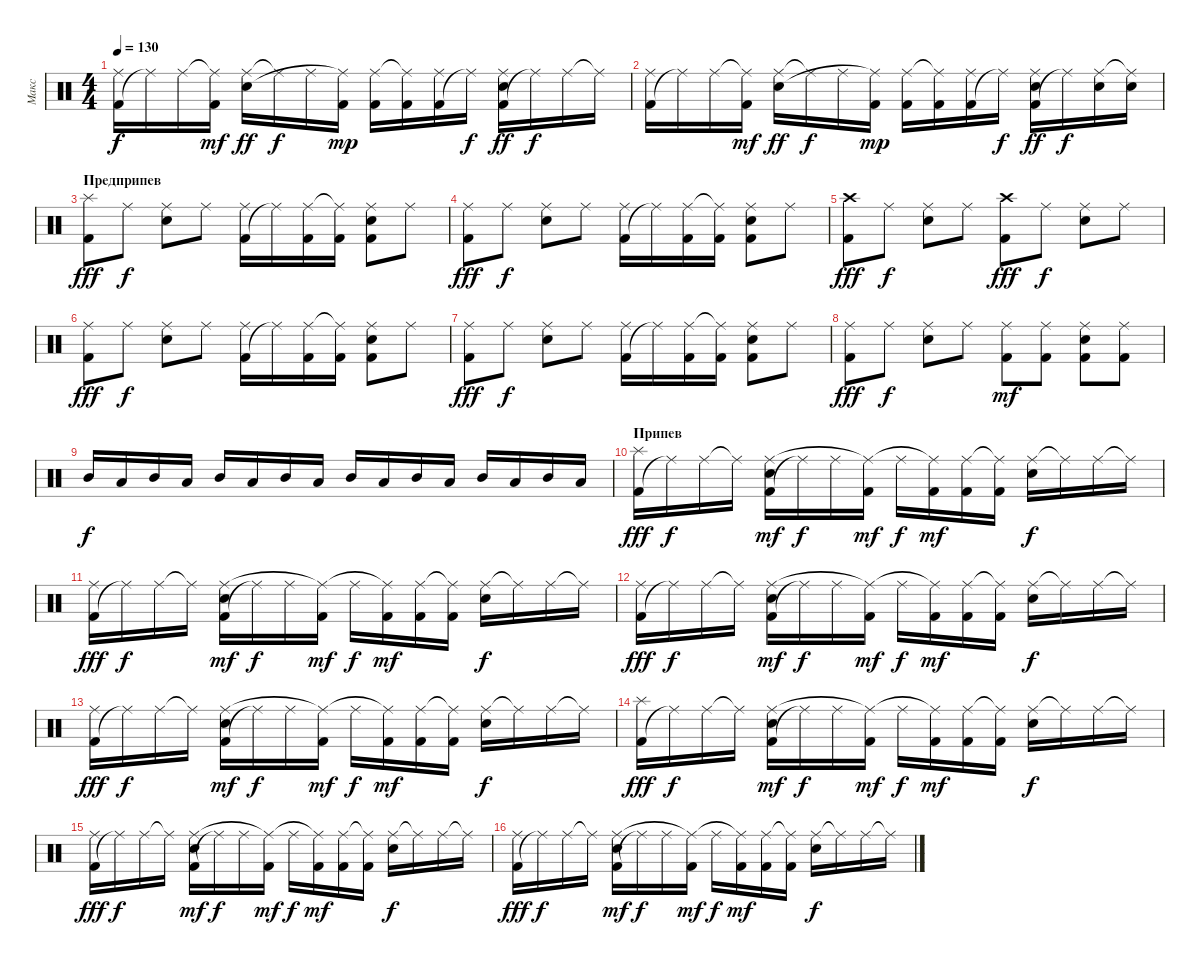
\track ("Макс" "Макс") {instrument percussion}
\staff {score}
\articulation defaults
\ts (4 4)
\tempo 130
\clef neutral
\ks c
("Kick (hit) 2" "Ride (middle)").16{dy f} "Ride (middle)"{t}.16 "Ride (middle)".16 ("Ride (middle)"{t} "Kick (hit) 2").16{dy mf} ("Ride (middle)" "Electric Snare (hit)").16{dy ff} "Ride (middle)"{t}.16{dy f} "Ride (middle)".16 ("Kick (hit) 2" "Ride (middle)"{t}).16{dy mp} ("Kick (hit) 2" "Ride (middle)").16 ("Kick (hit) 2" "Ride (middle)"{t}).16 ("Kick (hit) 2" "Ride (middle)").16 "Ride (middle)"{t}.16{dy f} ("Kick (hit) 2" "Ride (middle)" "Electric Snare (hit)").16{dy ff} "Ride (middle)"{t}.16{dy f} "Ride (middle)".16 "Ride (middle)"{t}.16 |
("Kick (hit) 2" "Ride (middle)").16 "Ride (middle)"{t}.16 "Ride (middle)".16 ("Ride (middle)"{t} "Kick (hit) 2").16{dy mf} ("Ride (middle)" "Electric Snare (hit)").16{dy ff} "Ride (middle)"{t}.16{dy f} "Ride (middle)".16 ("Kick (hit) 2" "Ride (middle)"{t}).16{dy mp} ("Kick (hit) 2" "Ride (middle)").16 ("Kick (hit) 2" "Ride (middle)"{t}).16 ("Kick (hit) 2" "Ride (middle)").16 "Ride (middle)"{t}.16{dy f} ("Kick (hit) 2" "Ride (middle)" "Electric Snare (hit)").16{dy ff} "Ride (middle)"{t}.16{dy f} ("Ride (middle)" "Electric Snare (hit)").16 ("Ride (middle)"{t} "Electric Snare (hit)").16 |
\section ("" "Предприпев")
("Kick (hit) 2" "Splash (hit)").8{dy fff} "Ride (middle)".8{dy f} ("Ride (middle)" "Electric Snare (hit)").8 "Ride (middle)".8 ("Kick (hit) 2" "Ride (middle)").16 "Ride (middle)"{t}.16 ("Kick (hit) 2" "Ride (middle)").16 ("Kick (hit) 2" "Ride (middle)"{t}).16 ("Kick (hit) 2" "Ride (middle)" "Electric Snare (hit)").8 "Ride (middle)".8 |
("Kick (hit) 2" "Ride (middle)").8{dy fff} "Ride (middle)".8{dy f} ("Ride (middle)" "Electric Snare (hit)").8 "Ride (middle)".8 ("Kick (hit) 2" "Ride (middle)").16 "Ride (middle)"{t}.16 ("Kick (hit) 2" "Ride (middle)").16 ("Kick (hit) 2" "Ride (middle)"{t}).16 ("Kick (hit) 2" "Ride (middle)" "Electric Snare (hit)").8 "Ride (middle)".8 |
("Kick (hit) 2" "Crash high (hit)").8{dy fff} "Ride (middle)".8{dy f} ("Ride (middle)" "Electric Snare (hit)").8 "Ride (middle)".8 ("Kick (hit) 2" "Crash high (hit)").8{dy fff} "Ride (middle)".8{dy f} ("Ride (middle)" "Electric Snare (hit)").8 "Ride (middle)".8 |
("Kick (hit) 2" "Ride (middle)").8{dy fff} "Ride (middle)".8{dy f} ("Ride (middle)" "Electric Snare (hit)").8 "Ride (middle)".8 ("Kick (hit) 2" "Ride (middle)").16 "Ride (middle)"{t}.16 ("Kick (hit) 2" "Ride (middle)").16 ("Kick (hit) 2" "Ride (middle)"{t}).16 ("Kick (hit) 2" "Ride (middle)" "Electric Snare (hit)").8 "Ride (middle)".8 |
("Kick (hit) 2" "Ride (middle)").8{dy fff} "Ride (middle)".8{dy f} ("Ride (middle)" "Electric Snare (hit)").8 "Ride (middle)".8 ("Kick (hit) 2" "Ride (middle)").16 "Ride (middle)"{t}.16 ("Kick (hit) 2" "Ride (middle)").16 ("Kick (hit) 2" "Ride (middle)"{t}).16 ("Kick (hit) 2" "Ride (middle)" "Electric Snare (hit)").8 "Ride (middle)".8 |
("Kick (hit) 2" "Ride (middle)").8{dy fff} "Ride (middle)".8{dy f} ("Ride (middle)" "Electric Snare (hit)").8 "Ride (middle)".8 ("Kick (hit) 2" "Ride (middle)").8{dy mf} ("Kick (hit) 2" "Ride (middle)").8 ("Kick (hit) 2" "Ride (middle)" "Electric Snare (hit)").8 ("Kick (hit) 2" "Ride (middle)").8 |
"Mid Tom (hit)".16{dy f} "Low Tom (hit)".16 "Mid Tom (hit)".16 "Low Tom (hit)".16 "Mid Tom (hit)".16 "Low Tom (hit)".16 "Mid Tom (hit)".16 "Low Tom (hit)".16 "Mid Tom (hit)".16 "Low Tom (hit)".16 "Mid Tom (hit)".16 "Low Tom (hit)".16 "Mid Tom (hit)".16 "Low Tom (hit)".16 "Mid Tom (hit)".16 "Low Tom (hit)".16 |
\section ("" "Припев")
("Kick (hit) 2" "Splash (hit)").16{dy fff} "Ride (middle)"{t}.16{dy f} "Ride (middle)".16 "Ride (middle)"{t}.16 ("Kick (hit) 2" "Ride (middle)" "Electric Snare (hit)").16{dy mf} "Ride (middle)"{t}.16{dy f} "Ride (middle)".16 ("Kick (hit) 2" "Ride (middle)"{t}).16{dy mf} "Ride (middle)".16{dy f} ("Kick (hit) 2" "Ride (middle)"{t}).16{dy mf} ("Kick (hit) 2" "Ride (middle)").16 ("Kick (hit) 2" "Ride (middle)"{t}).16 ("Ride (middle)" "Electric Snare (hit)").16{dy f} "Ride (middle)"{t}.16 "Ride (middle)".16 "Ride (middle)"{t}.16 |
("Kick (hit) 2" "Ride (middle)").16{dy fff} "Ride (middle)"{t}.16{dy f} "Ride (middle)".16 "Ride (middle)"{t}.16 ("Kick (hit) 2" "Ride (middle)" "Electric Snare (hit)").16{dy mf} "Ride (middle)"{t}.16{dy f} "Ride (middle)".16 ("Kick (hit) 2" "Ride (middle)"{t}).16{dy mf} "Ride (middle)".16{dy f} ("Kick (hit) 2" "Ride (middle)"{t}).16{dy mf} ("Kick (hit) 2" "Ride (middle)").16 ("Kick (hit) 2" "Ride (middle)"{t}).16 ("Ride (middle)" "Electric Snare (hit)").16{dy f} "Ride (middle)"{t}.16 "Ride (middle)".16 "Ride (middle)"{t}.16 |
("Kick (hit) 2" "Ride (middle)").16{dy fff} "Ride (middle)"{t}.16{dy f} "Ride (middle)".16 "Ride (middle)"{t}.16 ("Kick (hit) 2" "Ride (middle)" "Electric Snare (hit)").16{dy mf} "Ride (middle)"{t}.16{dy f} "Ride (middle)".16 ("Kick (hit) 2" "Ride (middle)"{t}).16{dy mf} "Ride (middle)".16{dy f} ("Kick (hit) 2" "Ride (middle)"{t}).16{dy mf} ("Kick (hit) 2" "Ride (middle)").16 ("Kick (hit) 2" "Ride (middle)"{t}).16 ("Ride (middle)" "Electric Snare (hit)").16{dy f} "Ride (middle)"{t}.16 "Ride (middle)".16 "Ride (middle)"{t}.16 |
("Kick (hit) 2" "Ride (middle)").16{dy fff} "Ride (middle)"{t}.16{dy f} "Ride (middle)".16 "Ride (middle)"{t}.16 ("Kick (hit) 2" "Ride (middle)" "Electric Snare (hit)").16{dy mf} "Ride (middle)"{t}.16{dy f} "Ride (middle)".16 ("Kick (hit) 2" "Ride (middle)"{t}).16{dy mf} "Ride (middle)".16{dy f} ("Kick (hit) 2" "Ride (middle)"{t}).16{dy mf} ("Kick (hit) 2" "Ride (middle)").16 ("Kick (hit) 2" "Ride (middle)"{t}).16 ("Ride (middle)" "Electric Snare (hit)").16{dy f} "Ride (middle)"{t}.16 "Ride (middle)".16 "Ride (middle)"{t}.16 |
("Kick (hit) 2" "Splash (hit)").16{dy fff} "Ride (middle)"{t}.16{dy f} "Ride (middle)".16 "Ride (middle)"{t}.16 ("Kick (hit) 2" "Ride (middle)" "Electric Snare (hit)").16{dy mf} "Ride (middle)"{t}.16{dy f} "Ride (middle)".16 ("Kick (hit) 2" "Ride (middle)"{t}).16{dy mf} "Ride (middle)".16{dy f} ("Kick (hit) 2" "Ride (middle)"{t}).16{dy mf} ("Kick (hit) 2" "Ride (middle)").16 ("Kick (hit) 2" "Ride (middle)"{t}).16 ("Ride (middle)" "Electric Snare (hit)").16{dy f} "Ride (middle)"{t}.16 "Ride (middle)".16 "Ride (middle)"{t}.16 |
("Kick (hit) 2" "Ride (middle)").16{dy fff} "Ride (middle)"{t}.16{dy f} "Ride (middle)".16 "Ride (middle)"{t}.16 ("Kick (hit) 2" "Ride (middle)" "Electric Snare (hit)").16{dy mf} "Ride (middle)"{t}.16{dy f} "Ride (middle)".16 ("Kick (hit) 2" "Ride (middle)"{t}).16{dy mf} "Ride (middle)".16{dy f} ("Kick (hit) 2" "Ride (middle)"{t}).16{dy mf} ("Kick (hit) 2" "Ride (middle)").16 ("Kick (hit) 2" "Ride (middle)"{t}).16 ("Ride (middle)" "Electric Snare (hit)").16{dy f} "Ride (middle)"{t}.16 "Ride (middle)".16 "Ride (middle)"{t}.16 |
("Kick (hit) 2" "Ride (middle)").16{dy fff} "Ride (middle)"{t}.16{dy f} "Ride (middle)".16 "Ride (middle)"{t}.16 ("Kick (hit) 2" "Ride (middle)" "Electric Snare (hit)").16{dy mf} "Ride (middle)"{t}.16{dy f} "Ride (middle)".16 ("Kick (hit) 2" "Ride (middle)"{t}).16{dy mf} "Ride (middle)".16{dy f} ("Kick (hit) 2" "Ride (middle)"{t}).16{dy mf} ("Kick (hit) 2" "Ride (middle)").16 ("Kick (hit) 2" "Ride (middle)"{t}).16 ("Ride (middle)" "Electric Snare (hit)").16{dy f} "Ride (middle)"{t}.16 "Ride (middle)".16 "Ride (middle)"{t}.16
